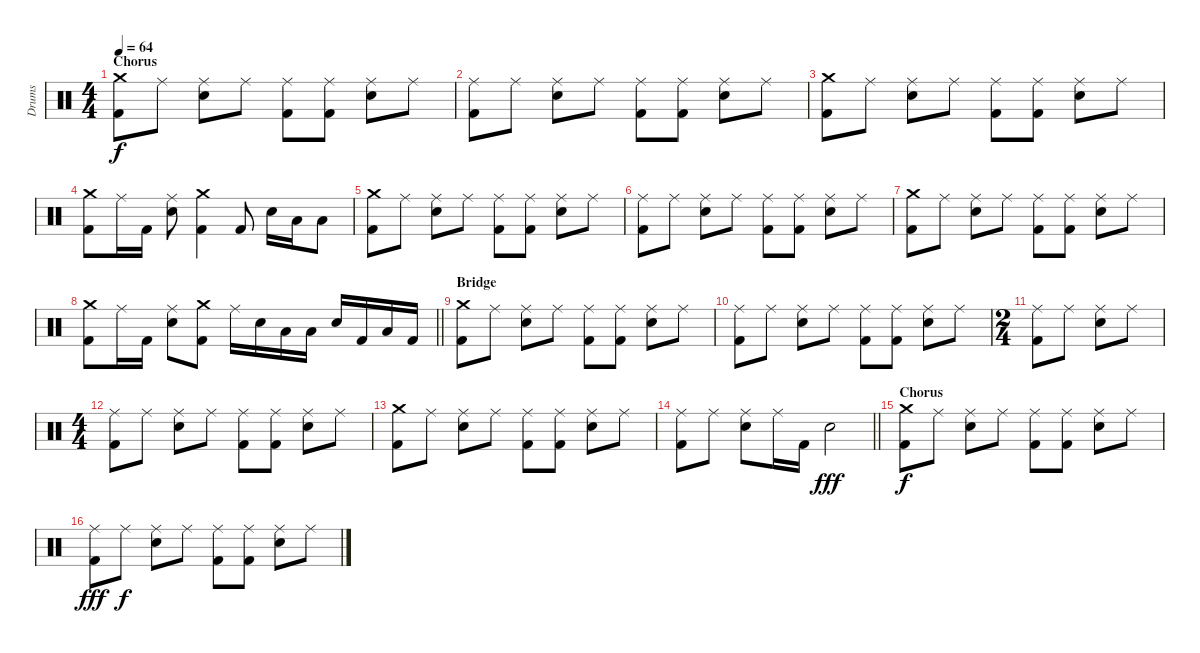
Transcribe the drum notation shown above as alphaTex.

\track ("Drums" "Drums") {instrument percussion}
\staff {score}
\articulation defaults
\ts (4 4)
\section ("" "Chorus")
\tempo 64
\clef neutral
\ks c
("Crash medium (hit)" "Kick (hit) 2").8{dy f} "Ride (middle)".8 ("Ride (middle)" "Snare (hit) 2").8 "Ride (middle)".8 ("Ride (middle)" "Kick (hit) 2").8 ("Ride (middle)" "Kick (hit) 2").8 ("Ride (middle)" "Snare (hit) 2").8 "Ride (middle)".8 |
("Ride (middle)" "Kick (hit) 2").8 "Ride (middle)".8 ("Ride (middle)" "Snare (hit) 2").8 "Ride (middle)".8 ("Ride (middle)" "Kick (hit) 2").8 ("Ride (middle)" "Kick (hit) 2").8 ("Ride (middle)" "Snare (hit) 2").8 "Ride (middle)".8 |
("Crash medium (hit)" "Kick (hit) 2").8 "Ride (middle)".8 ("Ride (middle)" "Snare (hit) 2").8 "Ride (middle)".8 ("Ride (middle)" "Kick (hit) 2").8 ("Ride (middle)" "Kick (hit) 2").8 ("Ride (middle)" "Snare (hit) 2").8 "Ride (middle)".8 |
("Crash medium (hit)" "Kick (hit) 2").8 "Ride (middle)".16 "Kick (hit) 2".16 ("Ride (middle)" "Snare (hit) 2").8 ("Crash medium (hit)" "Kick (hit) 2").4 "Kick (hit) 2".8 "Snare (hit) 2".16 "Low Tom (hit)".16 "Low Floor Tom (hit)".8 |
("Crash medium (hit)" "Kick (hit) 2").8 "Ride (middle)".8 ("Ride (middle)" "Snare (hit) 2").8 "Ride (middle)".8 ("Ride (middle)" "Kick (hit) 2").8 ("Ride (middle)" "Kick (hit) 2").8 ("Ride (middle)" "Snare (hit) 2").8 "Ride (middle)".8 |
("Ride (middle)" "Kick (hit) 2").8 "Ride (middle)".8 ("Ride (middle)" "Snare (hit) 2").8 "Ride (middle)".8 ("Ride (middle)" "Kick (hit) 2").8 ("Ride (middle)" "Kick (hit) 2").8 ("Ride (middle)" "Snare (hit) 2").8 "Ride (middle)".8 |
("Crash medium (hit)" "Kick (hit) 2").8 "Ride (middle)".8 ("Ride (middle)" "Snare (hit) 2").8 "Ride (middle)".8 ("Ride (middle)" "Kick (hit) 2").8 ("Ride (middle)" "Kick (hit) 2").8 ("Ride (middle)" "Snare (hit) 2").8 "Ride (middle)".8 |
\barLineRight lightlight
("Crash medium (hit)" "Kick (hit) 2").8 "Ride (middle)".16 "Kick (hit) 2".16 ("Ride (middle)" "Snare (hit) 2").8 ("Crash medium (hit)" "Kick (hit) 2").8 "Ride (middle)".16 "Snare (hit) 2".16 "Low Floor Tom (hit)".16 "Low Floor Tom (hit)".16 "Snare (hit) 2".16 "Kick (hit) 2".16 "Low Tom (hit)".16 "Kick (hit) 2".16 |
\section ("" "Bridge")
("Crash medium (hit)" "Kick (hit) 2").8 "Ride (middle)".8 ("Ride (middle)" "Snare (hit) 2").8 "Ride (middle)".8 ("Ride (middle)" "Kick (hit) 2").8 ("Ride (middle)" "Kick (hit) 2").8 ("Ride (middle)" "Snare (hit) 2").8 "Ride (middle)".8 |
("Ride (middle)" "Kick (hit) 2").8 "Ride (middle)".8 ("Ride (middle)" "Snare (hit) 2").8 "Ride (middle)".8 ("Ride (middle)" "Kick (hit) 2").8 ("Ride (middle)" "Kick (hit) 2").8 ("Ride (middle)" "Snare (hit) 2").8 "Ride (middle)".8 |
\ts (2 4)
("Ride (middle)" "Kick (hit) 2").8 "Ride (middle)".8 ("Ride (middle)" "Snare (hit) 2").8 "Ride (middle)".8 |
\ts (4 4)
("Ride (middle)" "Kick (hit) 2").8 "Ride (middle)".8 ("Ride (middle)" "Snare (hit) 2").8 "Ride (middle)".8 ("Ride (middle)" "Kick (hit) 2").8 ("Ride (middle)" "Kick (hit) 2").8 ("Ride (middle)" "Snare (hit) 2").8 "Ride (middle)".8 |
("Crash medium (hit)" "Kick (hit) 2").8 "Ride (middle)".8 ("Ride (middle)" "Snare (hit) 2").8 "Ride (middle)".8 ("Ride (middle)" "Kick (hit) 2").8 ("Ride (middle)" "Kick (hit) 2").8 ("Ride (middle)" "Snare (hit) 2").8 "Ride (middle)".8 |
\barLineRight lightlight
("Ride (middle)" "Kick (hit) 2").8 "Ride (middle)".8 ("Ride (middle)" "Snare (hit) 2").8 "Ride (middle)".16 "Kick (hit) 2".16 "Snare (hit) 2".2{dy fff} |
\section ("" "Chorus")
("Crash medium (hit)" "Kick (hit) 2").8{dy f} "Ride (middle)".8 ("Ride (middle)" "Snare (hit) 2").8 "Ride (middle)".8 ("Ride (middle)" "Kick (hit) 2").8 ("Ride (middle)" "Kick (hit) 2").8 ("Ride (middle)" "Snare (hit) 2").8 "Ride (middle)".8 |
("Ride (middle)" "Kick (hit) 2").8{dy fff} "Ride (middle)".8{dy f} ("Ride (middle)" "Snare (hit) 2").8 "Ride (middle)".8 ("Ride (middle)" "Kick (hit) 2").8 ("Ride (middle)" "Kick (hit) 2").8 ("Ride (middle)" "Snare (hit) 2").8 "Ride (middle)".8
